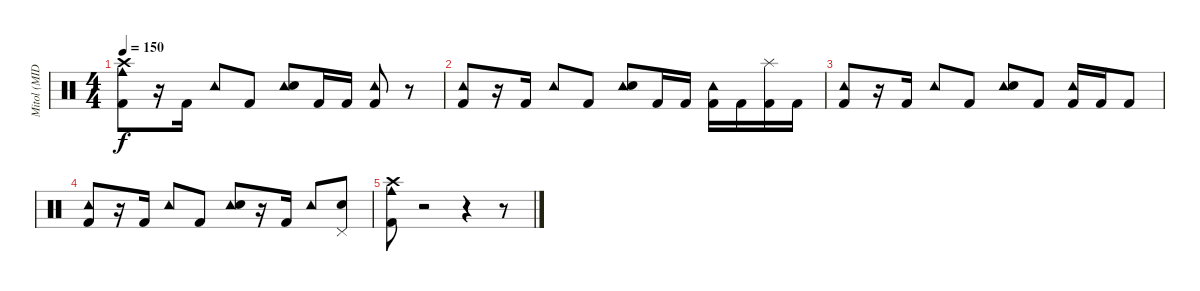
\track ("Mitol (MIDI)" "Mitol (MID") {instrument percussion}
\staff {score}
\articulation defaults
\ts (4 4)
\tempo 150
\clef neutral
\ks c
("Cowbell medium (hit)" "Crash high (hit)" "Kick (hit) 2").8{dy f} r.16 "Kick (hit) 2".16 "Tambourine (hit)".8 "Kick (hit) 2".8 ("Tambourine (hit)" "Electric Snare (hit)").8 "Kick (hit) 2".16 "Kick (hit) 2".16 ("Tambourine (hit)" "Kick (hit) 2").8 r.8 |
("Tambourine (hit)" "Kick (hit) 2").8 r.16 "Kick (hit) 2".16 "Tambourine (hit)".8 "Kick (hit) 2".8 ("Tambourine (hit)" "Electric Snare (hit)").8 "Kick (hit) 2".16 "Kick (hit) 2".16 ("Tambourine (hit)" "Kick (hit) 2").16 "Kick (hit) 2".16 ("Splash (hit)" "Kick (hit) 2").16 "Kick (hit) 2".16 |
("Tambourine (hit)" "Kick (hit) 2").8 r.16 "Kick (hit) 2".16 "Tambourine (hit)".8 "Kick (hit) 2".8 ("Tambourine (hit)" "Electric Snare (hit)").8 "Kick (hit) 2".8 ("Tambourine (hit)" "Kick (hit) 2").16 "Kick (hit) 2".16 "Kick (hit) 2".8 |
("Tambourine (hit)" "Kick (hit) 2").8 r.16 "Kick (hit) 2".16 "Tambourine (hit)".8 "Kick (hit) 2".8 ("Tambourine (hit)" "Electric Snare (hit)").8 r.16 "Kick (hit) 2".16 "Tambourine (hit)".8 ("Pedal Hi-Hat (hit)" "Electric Snare (hit)").8 |
("Crash high (hit)" "Kick (hit) 2" "Cowbell medium (hit)").8 r.2 r.4 r.8
